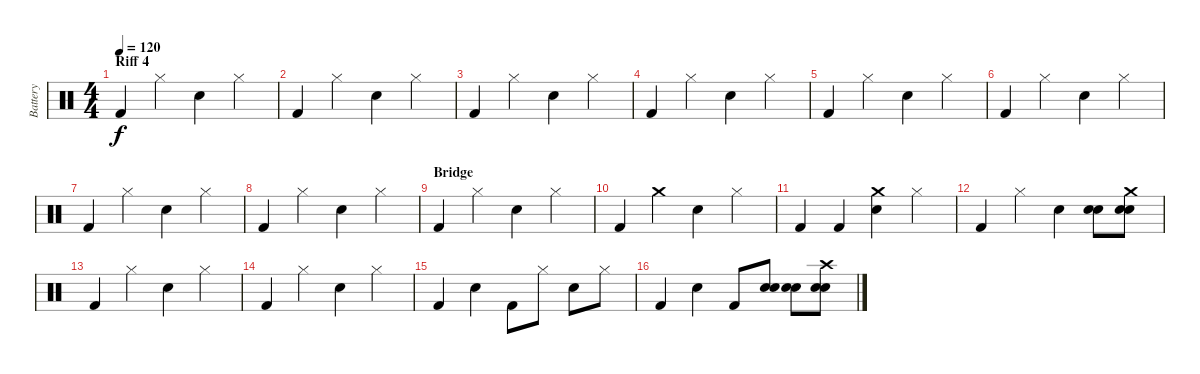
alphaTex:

\track ("Battery" "Battery") {instrument percussion}
\staff {score}
\articulation defaults
\ts (4 4)
\section ("" "Riff 4")
\tempo 120
\clef neutral
\ks c "Kick (hit) 2".4{dy f} "Hi-Hat (closed)".4 "Snare (hit) 2".4 "Hi-Hat (closed)".4
|
"Kick (hit) 2".4 "Hi-Hat (closed)".4 "Snare (hit) 2".4 "Hi-Hat (closed)".4 |
"Kick (hit) 2".4 "Hi-Hat (closed)".4 "Snare (hit) 2".4 "Hi-Hat (closed)".4 |
"Kick (hit) 2".4 "Hi-Hat (closed)".4 "Snare (hit) 2".4 "Hi-Hat (closed)".4 |
"Kick (hit) 2".4 "Hi-Hat (closed)".4 "Snare (hit) 2".4 "Hi-Hat (closed)".4 |
"Kick (hit) 2".4 "Hi-Hat (closed)".4 "Snare (hit) 2".4 "Hi-Hat (closed)".4 |
"Kick (hit) 2".4 "Hi-Hat (closed)".4 "Snare (hit) 2".4 "Hi-Hat (closed)".4 |
"Kick (hit) 2".4 "Hi-Hat (closed)".4 "Snare (hit) 2".4 "Hi-Hat (closed)".4 |
\section ("" "Bridge")
"Kick (hit) 2".4 "Hi-Hat (closed)".4 "Snare (hit) 2".4 "Hi-Hat (closed)".4 |
"Kick (hit) 2".4 "Crash medium (hit)".4 "Snare (hit) 2".4 "Hi-Hat (closed)".4 |
"Kick (hit) 2".4 "Kick (hit) 2".4 ("Snare (hit) 2" "Crash medium (hit)").4 "Hi-Hat (closed)".4 |
"Kick (hit) 2".4 "Hi-Hat (closed)".4 "Snare (hit) 2".4 ("Snare (hit) 2" "Snare (hit) 2").8 ("Snare (hit) 2" "Snare (hit) 2" "Crash medium (hit)").8 |
"Kick (hit) 2".4 "Hi-Hat (closed)".4 "Snare (hit) 2".4 "Hi-Hat (closed)".4 |
"Kick (hit) 2".4 "Hi-Hat (closed)".4 "Snare (hit) 2".4 "Hi-Hat (closed)".4 |
"Kick (hit) 2".4 "Snare (hit) 2".4 "Kick (hit) 2".8 "Hi-Hat (closed)".8 "Snare (hit) 2".8 "Hi-Hat (closed)".8 |
"Kick (hit) 2".4 "Snare (hit) 2".4 "Kick (hit) 2".8 ("Snare (hit) 2" "Snare (hit) 2").8 ("Snare (hit) 2" "Snare (hit) 2").8 ("Snare (hit) 2" "Crash high (hit)" "Snare (hit) 2").8
